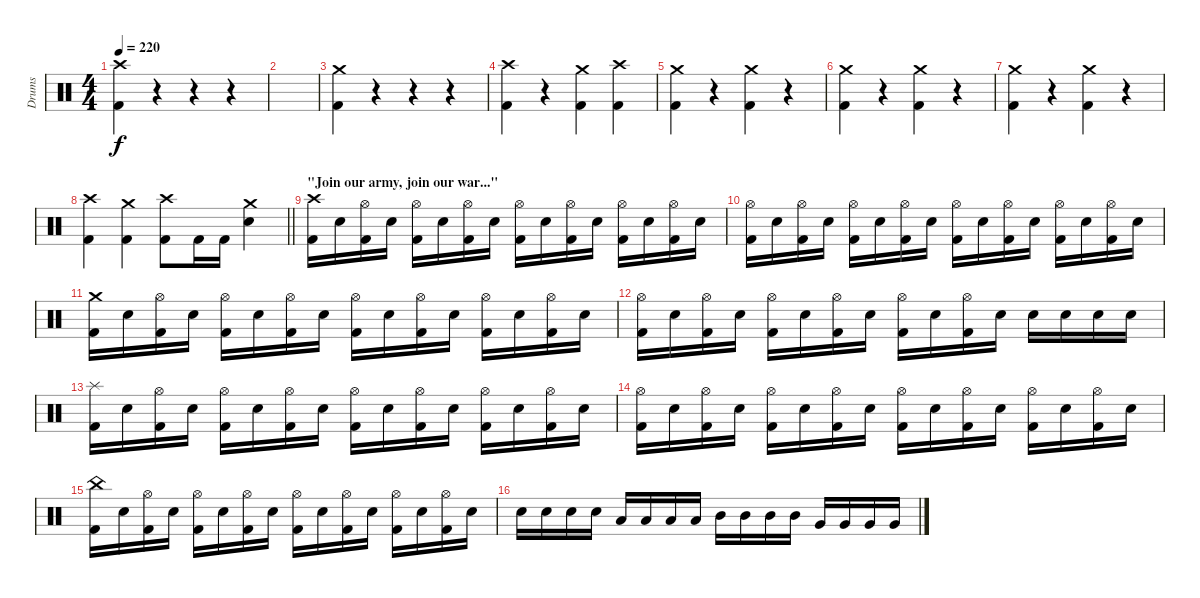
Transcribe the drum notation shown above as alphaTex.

\track ("Drums" "Drums") {instrument percussion}
\staff {score}
\articulation defaults
\ts (4 4)
\section ("" "")
\tempo 220
\clef neutral
\ks c
("Crash high (hit)" "Kick (hit) 2").4{dy f volume 16} r.4{volume 0} r.4 r.4 |
|
("Crash medium (hit)" "Kick (hit) 2").4{volume 16} r.4{volume 0} r.4 r.4 |
("Crash high (hit)" "Kick (hit) 2").4{volume 16} r.4{volume 0} ("Crash medium (hit)" "Kick (hit) 2").4{volume 16} ("Crash high (hit)" "Kick (hit) 2").4 |
("Crash medium (hit)" "Kick (hit) 2").4 r.4{volume 0} ("Crash medium (hit)" "Kick (hit) 2").4{volume 16} r.4{volume 0} |
("Crash medium (hit)" "Kick (hit) 2").4{volume 16} r.4{volume 0} ("Crash medium (hit)" "Kick (hit) 2").4{volume 16} r.4{volume 0} |
("Crash medium (hit)" "Kick (hit) 2").4{volume 16} r.4{volume 0} ("Crash medium (hit)" "Kick (hit) 2").4{volume 16} r.4{volume 0} |
\barLineRight lightlight
("Crash high (hit)" "Kick (hit) 2").4{volume 16} ("Crash medium (hit)" "Kick (hit) 2").4 ("Crash high (hit)" "Kick (hit) 2").8 "Kick (hit) 2".16 "Kick (hit) 2".16 ("Crash medium (hit)" "Snare (hit) 2").4 |
\section ("" "\"Join our army, join our war...\"")
("Crash high (hit)" "Kick (hit) 2").16 "Snare (hit) 2".16 ("Hi-Hat (open)" "Kick (hit) 2").16 "Snare (hit) 2".16 ("Hi-Hat (open)" "Kick (hit) 2").16 "Snare (hit) 2".16 ("Hi-Hat (open)" "Kick (hit) 2").16 "Snare (hit) 2".16 ("Hi-Hat (open)" "Kick (hit) 2").16 "Snare (hit) 2".16 ("Hi-Hat (open)" "Kick (hit) 2").16 "Snare (hit) 2".16 ("Hi-Hat (open)" "Kick (hit) 2").16 "Snare (hit) 2".16 ("Hi-Hat (open)" "Kick (hit) 2").16 "Snare (hit) 2".16 |
("Hi-Hat (open)" "Kick (hit) 2").16 "Snare (hit) 2".16 ("Hi-Hat (open)" "Kick (hit) 2").16 "Snare (hit) 2".16 ("Hi-Hat (open)" "Kick (hit) 2").16 "Snare (hit) 2".16 ("Hi-Hat (open)" "Kick (hit) 2").16 "Snare (hit) 2".16 ("Hi-Hat (open)" "Kick (hit) 2").16 "Snare (hit) 2".16 ("Hi-Hat (open)" "Kick (hit) 2").16 "Snare (hit) 2".16 ("Hi-Hat (open)" "Kick (hit) 2").16 "Snare (hit) 2".16 ("Hi-Hat (open)" "Kick (hit) 2").16 "Snare (hit) 2".16 |
("Crash medium (hit)" "Kick (hit) 2").16 "Snare (hit) 2".16 ("Hi-Hat (open)" "Kick (hit) 2").16 "Snare (hit) 2".16 ("Hi-Hat (open)" "Kick (hit) 2").16 "Snare (hit) 2".16 ("Hi-Hat (open)" "Kick (hit) 2").16 "Snare (hit) 2".16 ("Hi-Hat (open)" "Kick (hit) 2").16 "Snare (hit) 2".16 ("Hi-Hat (open)" "Kick (hit) 2").16 "Snare (hit) 2".16 ("Hi-Hat (open)" "Kick (hit) 2").16 "Snare (hit) 2".16 ("Hi-Hat (open)" "Kick (hit) 2").16 "Snare (hit) 2".16 |
("Hi-Hat (open)" "Kick (hit) 2").16 "Snare (hit) 2".16 ("Hi-Hat (open)" "Kick (hit) 2").16 "Snare (hit) 2".16 ("Hi-Hat (open)" "Kick (hit) 2").16 "Snare (hit) 2".16 ("Hi-Hat (open)" "Kick (hit) 2").16 "Snare (hit) 2".16 ("Hi-Hat (open)" "Kick (hit) 2").16 "Snare (hit) 2".16 ("Hi-Hat (open)" "Kick (hit) 2").16 "Snare (hit) 2".16 "Snare (hit) 2".16 "Snare (hit) 2".16 "Snare (hit) 2".16 "Snare (hit) 2".16 |
("Splash (hit)" "Kick (hit) 2").16 "Snare (hit) 2".16 ("Hi-Hat (open)" "Kick (hit) 2").16 "Snare (hit) 2".16 ("Hi-Hat (open)" "Kick (hit) 2").16 "Snare (hit) 2".16 ("Hi-Hat (open)" "Kick (hit) 2").16 "Snare (hit) 2".16 ("Hi-Hat (open)" "Kick (hit) 2").16 "Snare (hit) 2".16 ("Hi-Hat (open)" "Kick (hit) 2").16 "Snare (hit) 2".16 ("Hi-Hat (open)" "Kick (hit) 2").16 "Snare (hit) 2".16 ("Hi-Hat (open)" "Kick (hit) 2").16 "Snare (hit) 2".16 |
("Hi-Hat (open)" "Kick (hit) 2").16 "Snare (hit) 2".16 ("Hi-Hat (open)" "Kick (hit) 2").16 "Snare (hit) 2".16 ("Hi-Hat (open)" "Kick (hit) 2").16 "Snare (hit) 2".16 ("Hi-Hat (open)" "Kick (hit) 2").16 "Snare (hit) 2".16 ("Hi-Hat (open)" "Kick (hit) 2").16 "Snare (hit) 2".16 ("Hi-Hat (open)" "Kick (hit) 2").16 "Snare (hit) 2".16 ("Hi-Hat (open)" "Kick (hit) 2").16 "Snare (hit) 2".16 ("Hi-Hat (open)" "Kick (hit) 2").16 "Snare (hit) 2".16 |
("China (hit)" "Kick (hit) 2").16 "Snare (hit) 2".16 ("Hi-Hat (open)" "Kick (hit) 2").16 "Snare (hit) 2".16 ("Hi-Hat (open)" "Kick (hit) 2").16 "Snare (hit) 2".16 ("Hi-Hat (open)" "Kick (hit) 2").16 "Snare (hit) 2".16 ("Hi-Hat (open)" "Kick (hit) 2").16 "Snare (hit) 2".16 ("Hi-Hat (open)" "Kick (hit) 2").16 "Snare (hit) 2".16 ("Hi-Hat (open)" "Kick (hit) 2").16 "Snare (hit) 2".16 ("Hi-Hat (open)" "Kick (hit) 2").16 "Snare (hit) 2".16 |
"Snare (hit) 2".16 "Snare (hit) 2".16 "Snare (hit) 2".16 "Snare (hit) 2".16 "Low Tom (hit)".16 "Low Tom (hit)".16 "Low Tom (hit)".16 "Low Tom (hit)".16 "Mid Tom (hit)".16 "Mid Tom (hit)".16 "Mid Tom (hit)".16 "Mid Tom (hit)".16 "Very Low Tom (hit)".16 "Very Low Tom (hit)".16 "Very Low Tom (hit)".16 "Very Low Tom (hit)".16
